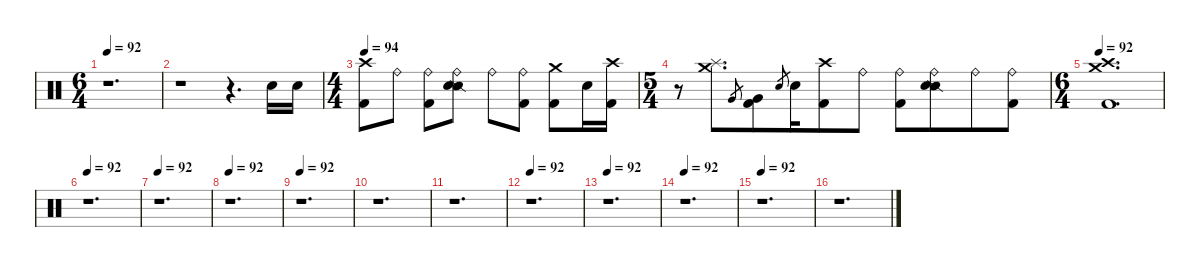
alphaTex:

\defaultSystemsLayout 4
\hideDynamics
\bracketExtendMode nobrackets
\singleTrackTrackNamePolicy hidden
\multiTrackTrackNamePolicy hidden
\firstSystemTrackNameMode fullname
\firstSystemTrackNameOrientation horizontal
\otherSystemsTrackNameOrientation horizontal
\track ("Drums" "drm.") {defaultSystemsLayout 4 instrument percussion}
\staff {score}
\articulation defaults
\ts (6 4)
\tempo 92
\clef neutral
\ks c
r.1{d dy f beam Down} |
r.1{beam Down} r.4{d beam Down} "Snare (hit) 2".16{dy fff beam Down} "Snare (hit) 2".16{beam Down} |
\ts (4 4)
\beaming (8 2 2 2 2)
\tempo 94
("Crash high (hit)" "Kick (hit) 2").8{beam Down} "Ride (bell)".8{dy f beam Down} ("Ride (bell)" "Kick (hit) 2").8{beam Down} ("Ride (bell)" "Snare (side stick) 2" "Snare (hit) 2").8{beam Down} "Ride (bell)".8{beam Down} ("Ride (bell)" "Kick (hit) 2").8{beam Down} ("Crash medium (hit)" "Kick (hit) 2").8{dy fff beam Down} "Snare (hit) 2".16{dy ff beam Down} ("Crash high (hit)" "Kick (hit) 2").16{dy fff beam Down} |
\ts (5 4)
\beaming (8 6 4)
r.8{beam Down} ("Crash medium (hit)" "Splash (hit)").8{d beam Down} "Very Low Tom (hit)".8{gr dy f beam Up} ("Very Low Tom (hit)" "Kick (hit) 2").8{beam Down} "Electric Snare (hit)".8{gr dy ff beam Up} "Snare (hit) 2".16{dy fff beam Down} ("Crash high (hit)" "Kick (hit) 2").8{beam Down} "Ride (bell)".8{dy f beam Down} ("Ride (bell)" "Kick (hit) 2").8{beam Down} ("Ride (bell)" "Snare (side stick) 2" "Snare (hit) 2").8{beam Down} "Ride (bell)".8{beam Down} ("Ride (bell)" "Kick (hit) 2").8{beam Down} |
\ts (6 4)
\beaming (8 6 6)
\tempo 92
("Crash high (hit)" "Crash medium (hit)" "Kick (hit) 2").1{d dy fff beam Down} |
\tempo 92
r.1{d beam Down} |
\tempo 92
r.1{d beam Down} |
\tempo 92
r.1{d beam Down} |
\tempo 92
r.1{d beam Down} |
r.1{d beam Down} |
r.1{d beam Down} |
\tempo 92
r.1{d beam Down} |
\tempo 92
r.1{d beam Down} |
\tempo 92
r.1{d beam Down} |
\tempo 92
r.1{d beam Down} |
r.1{d beam Down}
